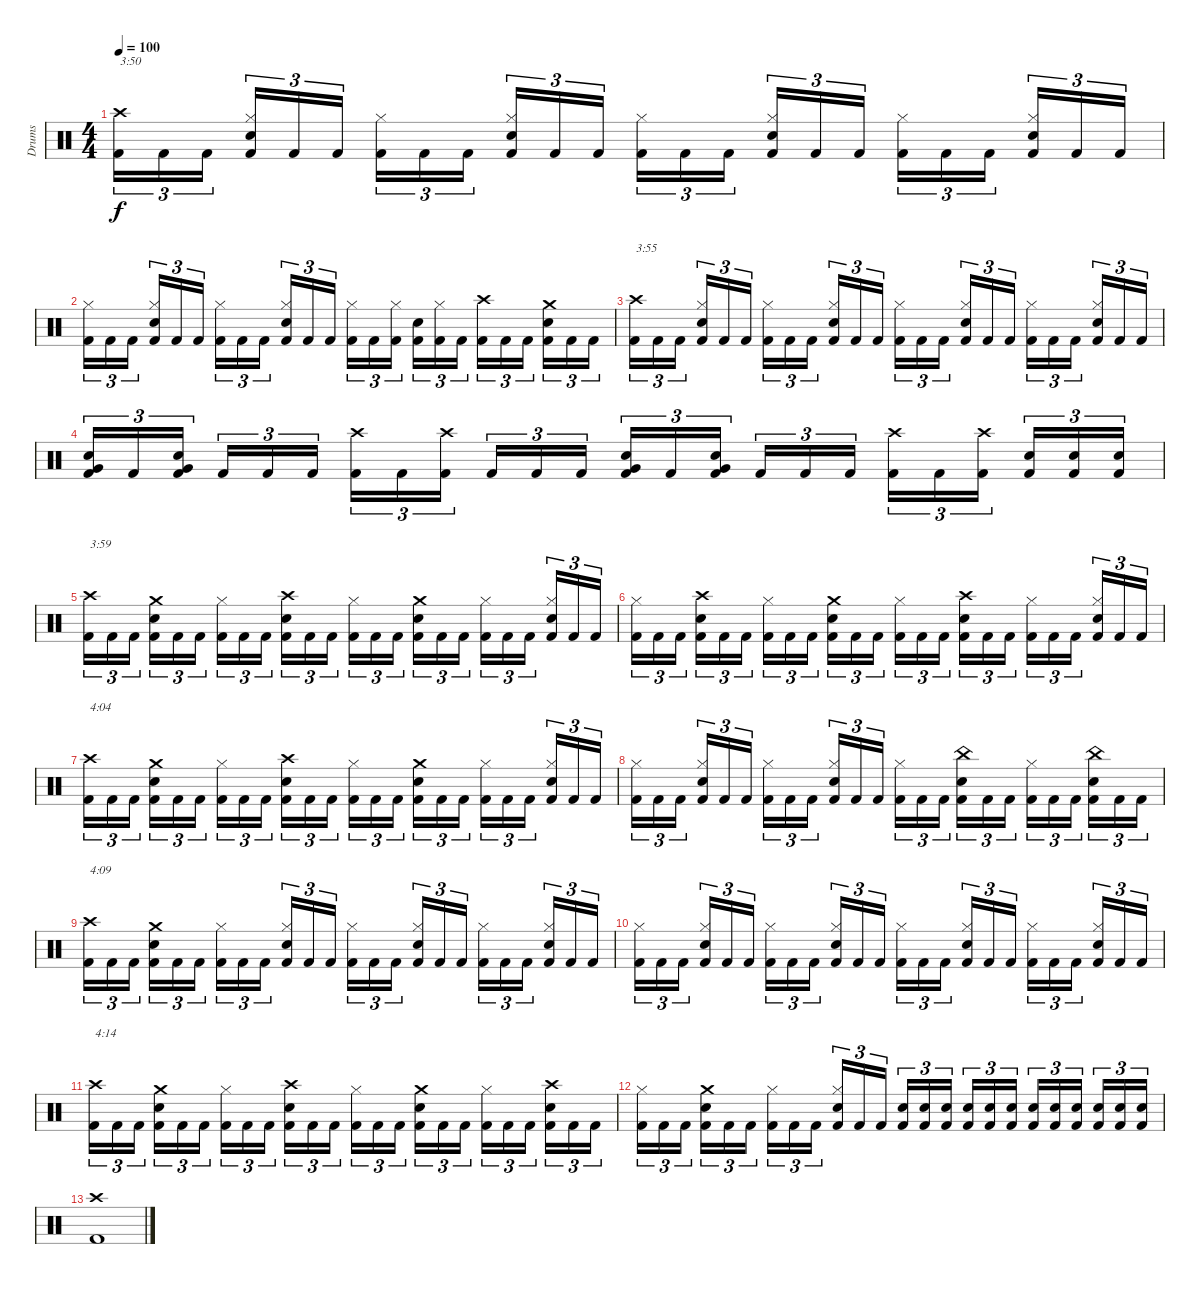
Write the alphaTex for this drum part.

\track ("Drums" "Drums") {instrument percussion}
\staff {score}
\articulation defaults
\ts (4 4)
\tempo 100
\clef neutral
\ks c
("Crash high (hit)" "Kick (hit) 2").16{tu (3 2) txt "3:50" dy f} "Kick (hit) 2".16{tu (3 2)} "Kick (hit) 2".16{tu (3 2)} ("Hi-Hat (closed)" "Snare (hit) 2" "Kick (hit) 2").16{tu (3 2)} "Kick (hit) 2".16{tu (3 2)} "Kick (hit) 2".16{tu (3 2)} ("Hi-Hat (closed)" "Kick (hit) 2").16{tu (3 2)} "Kick (hit) 2".16{tu (3 2)} "Kick (hit) 2".16{tu (3 2)} ("Hi-Hat (closed)" "Snare (hit) 2" "Kick (hit) 2").16{tu (3 2)} "Kick (hit) 2".16{tu (3 2)} "Kick (hit) 2".16{tu (3 2)} ("Hi-Hat (closed)" "Kick (hit) 2").16{tu (3 2)} "Kick (hit) 2".16{tu (3 2)} "Kick (hit) 2".16{tu (3 2)} ("Hi-Hat (closed)" "Snare (hit) 2" "Kick (hit) 2").16{tu (3 2)} "Kick (hit) 2".16{tu (3 2)} "Kick (hit) 2".16{tu (3 2)} ("Hi-Hat (closed)" "Kick (hit) 2").16{tu (3 2)} "Kick (hit) 2".16{tu (3 2)} "Kick (hit) 2".16{tu (3 2)} ("Hi-Hat (closed)" "Snare (hit) 2" "Kick (hit) 2").16{tu (3 2)} "Kick (hit) 2".16{tu (3 2)} "Kick (hit) 2".16{tu (3 2)} |
("Hi-Hat (closed)" "Kick (hit) 2").16{tu (3 2)} "Kick (hit) 2".16{tu (3 2)} "Kick (hit) 2".16{tu (3 2)} ("Hi-Hat (closed)" "Snare (hit) 2" "Kick (hit) 2").16{tu (3 2)} "Kick (hit) 2".16{tu (3 2)} "Kick (hit) 2".16{tu (3 2)} ("Hi-Hat (closed)" "Kick (hit) 2").16{tu (3 2)} "Kick (hit) 2".16{tu (3 2)} "Kick (hit) 2".16{tu (3 2)} ("Hi-Hat (closed)" "Snare (hit) 2" "Kick (hit) 2").16{tu (3 2)} "Kick (hit) 2".16{tu (3 2)} "Kick (hit) 2".16{tu (3 2)} ("Hi-Hat (closed)" "Kick (hit) 2").16{tu (3 2)} "Kick (hit) 2".16{tu (3 2)} ("Hi-Hat (closed)" "Kick (hit) 2").16{tu (3 2)} ("Snare (hit) 2" "Kick (hit) 2").16{tu (3 2)} ("Hi-Hat (closed)" "Kick (hit) 2").16{tu (3 2)} "Kick (hit) 2".16{tu (3 2)} ("Crash high (hit)" "Kick (hit) 2").16{tu (3 2)} "Kick (hit) 2".16{tu (3 2)} "Kick (hit) 2".16{tu (3 2)} ("Crash medium (hit)" "Snare (hit) 2" "Kick (hit) 2").16{tu (3 2)} "Kick (hit) 2".16{tu (3 2)} "Kick (hit) 2".16{tu (3 2)} |
("Crash high (hit)" "Kick (hit) 2").16{tu (3 2) txt "3:55"} "Kick (hit) 2".16{tu (3 2)} "Kick (hit) 2".16{tu (3 2)} ("Hi-Hat (closed)" "Snare (hit) 2" "Kick (hit) 2").16{tu (3 2)} "Kick (hit) 2".16{tu (3 2)} "Kick (hit) 2".16{tu (3 2)} ("Hi-Hat (closed)" "Kick (hit) 2").16{tu (3 2)} "Kick (hit) 2".16{tu (3 2)} "Kick (hit) 2".16{tu (3 2)} ("Hi-Hat (closed)" "Snare (hit) 2" "Kick (hit) 2").16{tu (3 2)} "Kick (hit) 2".16{tu (3 2)} "Kick (hit) 2".16{tu (3 2)} ("Hi-Hat (closed)" "Kick (hit) 2").16{tu (3 2)} "Kick (hit) 2".16{tu (3 2)} "Kick (hit) 2".16{tu (3 2)} ("Hi-Hat (closed)" "Snare (hit) 2" "Kick (hit) 2").16{tu (3 2)} "Kick (hit) 2".16{tu (3 2)} "Kick (hit) 2".16{tu (3 2)} ("Hi-Hat (closed)" "Kick (hit) 2").16{tu (3 2)} "Kick (hit) 2".16{tu (3 2)} "Kick (hit) 2".16{tu (3 2)} ("Hi-Hat (closed)" "Snare (hit) 2" "Kick (hit) 2").16{tu (3 2)} "Kick (hit) 2".16{tu (3 2)} "Kick (hit) 2".16{tu (3 2)} |
("Very Low Tom (hit)" "Snare (hit) 2" "Kick (hit) 2").16{tu (3 2)} "Kick (hit) 2".16{tu (3 2)} ("Very Low Tom (hit)" "Snare (hit) 2" "Kick (hit) 2").16{tu (3 2)} "Kick (hit) 2".16{tu (3 2)} "Kick (hit) 2".16{tu (3 2)} "Kick (hit) 2".16{tu (3 2)} ("Crash high (hit)" "Kick (hit) 2").16{tu (3 2)} "Kick (hit) 2".16{tu (3 2)} ("Crash high (hit)" "Kick (hit) 2").16{tu (3 2)} "Kick (hit) 2".16{tu (3 2)} "Kick (hit) 2".16{tu (3 2)} "Kick (hit) 2".16{tu (3 2)} ("Very Low Tom (hit)" "Snare (hit) 2" "Kick (hit) 2").16{tu (3 2)} "Kick (hit) 2".16{tu (3 2)} ("Very Low Tom (hit)" "Snare (hit) 2" "Kick (hit) 2").16{tu (3 2)} "Kick (hit) 2".16{tu (3 2)} "Kick (hit) 2".16{tu (3 2)} "Kick (hit) 2".16{tu (3 2)} ("Crash high (hit)" "Kick (hit) 2").16{tu (3 2)} "Kick (hit) 2".16{tu (3 2)} ("Crash high (hit)" "Kick (hit) 2").16{tu (3 2)} ("Snare (hit) 2" "Kick (hit) 2").16{tu (3 2)} ("Snare (hit) 2" "Kick (hit) 2").16{tu (3 2)} ("Snare (hit) 2" "Kick (hit) 2").16{tu (3 2)} |
("Crash high (hit)" "Kick (hit) 2").16{tu (3 2) txt "3:59"} "Kick (hit) 2".16{tu (3 2)} "Kick (hit) 2".16{tu (3 2)} ("Crash medium (hit)" "Snare (hit) 2" "Kick (hit) 2").16{tu (3 2)} "Kick (hit) 2".16{tu (3 2)} "Kick (hit) 2".16{tu (3 2)} ("Hi-Hat (closed)" "Kick (hit) 2").16{tu (3 2)} "Kick (hit) 2".16{tu (3 2)} "Kick (hit) 2".16{tu (3 2)} ("Crash high (hit)" "Snare (hit) 2" "Kick (hit) 2").16{tu (3 2)} "Kick (hit) 2".16{tu (3 2)} "Kick (hit) 2".16{tu (3 2)} ("Hi-Hat (closed)" "Kick (hit) 2").16{tu (3 2)} "Kick (hit) 2".16{tu (3 2)} "Kick (hit) 2".16{tu (3 2)} ("Crash medium (hit)" "Snare (hit) 2" "Kick (hit) 2").16{tu (3 2)} "Kick (hit) 2".16{tu (3 2)} "Kick (hit) 2".16{tu (3 2)} ("Hi-Hat (closed)" "Kick (hit) 2").16{tu (3 2)} "Kick (hit) 2".16{tu (3 2)} "Kick (hit) 2".16{tu (3 2)} ("Hi-Hat (closed)" "Snare (hit) 2" "Kick (hit) 2").16{tu (3 2)} "Kick (hit) 2".16{tu (3 2)} "Kick (hit) 2".16{tu (3 2)} |
("Hi-Hat (closed)" "Kick (hit) 2").16{tu (3 2)} "Kick (hit) 2".16{tu (3 2)} "Kick (hit) 2".16{tu (3 2)} ("Crash high (hit)" "Snare (hit) 2" "Kick (hit) 2").16{tu (3 2)} "Kick (hit) 2".16{tu (3 2)} "Kick (hit) 2".16{tu (3 2)} ("Hi-Hat (closed)" "Kick (hit) 2").16{tu (3 2)} "Kick (hit) 2".16{tu (3 2)} "Kick (hit) 2".16{tu (3 2)} ("Crash medium (hit)" "Snare (hit) 2" "Kick (hit) 2").16{tu (3 2)} "Kick (hit) 2".16{tu (3 2)} "Kick (hit) 2".16{tu (3 2)} ("Hi-Hat (closed)" "Kick (hit) 2").16{tu (3 2)} "Kick (hit) 2".16{tu (3 2)} "Kick (hit) 2".16{tu (3 2)} ("Crash high (hit)" "Snare (hit) 2" "Kick (hit) 2").16{tu (3 2)} "Kick (hit) 2".16{tu (3 2)} "Kick (hit) 2".16{tu (3 2)} ("Hi-Hat (closed)" "Kick (hit) 2").16{tu (3 2)} "Kick (hit) 2".16{tu (3 2)} "Kick (hit) 2".16{tu (3 2)} ("Hi-Hat (closed)" "Snare (hit) 2" "Kick (hit) 2").16{tu (3 2)} "Kick (hit) 2".16{tu (3 2)} "Kick (hit) 2".16{tu (3 2)} |
("Crash high (hit)" "Kick (hit) 2").16{tu (3 2) txt "4:04"} "Kick (hit) 2".16{tu (3 2)} "Kick (hit) 2".16{tu (3 2)} ("Crash medium (hit)" "Snare (hit) 2" "Kick (hit) 2").16{tu (3 2)} "Kick (hit) 2".16{tu (3 2)} "Kick (hit) 2".16{tu (3 2)} ("Hi-Hat (closed)" "Kick (hit) 2").16{tu (3 2)} "Kick (hit) 2".16{tu (3 2)} "Kick (hit) 2".16{tu (3 2)} ("Crash high (hit)" "Snare (hit) 2" "Kick (hit) 2").16{tu (3 2)} "Kick (hit) 2".16{tu (3 2)} "Kick (hit) 2".16{tu (3 2)} ("Hi-Hat (closed)" "Kick (hit) 2").16{tu (3 2)} "Kick (hit) 2".16{tu (3 2)} "Kick (hit) 2".16{tu (3 2)} ("Crash medium (hit)" "Snare (hit) 2" "Kick (hit) 2").16{tu (3 2)} "Kick (hit) 2".16{tu (3 2)} "Kick (hit) 2".16{tu (3 2)} ("Hi-Hat (closed)" "Kick (hit) 2").16{tu (3 2)} "Kick (hit) 2".16{tu (3 2)} "Kick (hit) 2".16{tu (3 2)} ("Hi-Hat (closed)" "Snare (hit) 2" "Kick (hit) 2").16{tu (3 2)} "Kick (hit) 2".16{tu (3 2)} "Kick (hit) 2".16{tu (3 2)} |
("Hi-Hat (closed)" "Kick (hit) 2").16{tu (3 2)} "Kick (hit) 2".16{tu (3 2)} "Kick (hit) 2".16{tu (3 2)} ("Hi-Hat (closed)" "Snare (hit) 2" "Kick (hit) 2").16{tu (3 2)} "Kick (hit) 2".16{tu (3 2)} "Kick (hit) 2".16{tu (3 2)} ("Hi-Hat (closed)" "Kick (hit) 2").16{tu (3 2)} "Kick (hit) 2".16{tu (3 2)} "Kick (hit) 2".16{tu (3 2)} ("Hi-Hat (closed)" "Snare (hit) 2" "Kick (hit) 2").16{tu (3 2)} "Kick (hit) 2".16{tu (3 2)} "Kick (hit) 2".16{tu (3 2)} ("Hi-Hat (closed)" "Kick (hit) 2").16{tu (3 2)} "Kick (hit) 2".16{tu (3 2)} "Kick (hit) 2".16{tu (3 2)} ("China (hit)" "Snare (hit) 2" "Kick (hit) 2").16{tu (3 2)} "Kick (hit) 2".16{tu (3 2)} "Kick (hit) 2".16{tu (3 2)} ("Hi-Hat (closed)" "Kick (hit) 2").16{tu (3 2)} "Kick (hit) 2".16{tu (3 2)} "Kick (hit) 2".16{tu (3 2)} ("China (hit)" "Snare (hit) 2" "Kick (hit) 2").16{tu (3 2)} "Kick (hit) 2".16{tu (3 2)} "Kick (hit) 2".16{tu (3 2)} |
("Crash high (hit)" "Kick (hit) 2").16{tu (3 2) txt "4:09"} "Kick (hit) 2".16{tu (3 2)} "Kick (hit) 2".16{tu (3 2)} ("Crash medium (hit)" "Snare (hit) 2" "Kick (hit) 2").16{tu (3 2)} "Kick (hit) 2".16{tu (3 2)} "Kick (hit) 2".16{tu (3 2)} ("Hi-Hat (closed)" "Kick (hit) 2").16{tu (3 2)} "Kick (hit) 2".16{tu (3 2)} "Kick (hit) 2".16{tu (3 2)} ("Hi-Hat (closed)" "Snare (hit) 2" "Kick (hit) 2").16{tu (3 2)} "Kick (hit) 2".16{tu (3 2)} "Kick (hit) 2".16{tu (3 2)} ("Hi-Hat (closed)" "Kick (hit) 2").16{tu (3 2)} "Kick (hit) 2".16{tu (3 2)} "Kick (hit) 2".16{tu (3 2)} ("Hi-Hat (closed)" "Snare (hit) 2" "Kick (hit) 2").16{tu (3 2)} "Kick (hit) 2".16{tu (3 2)} "Kick (hit) 2".16{tu (3 2)} ("Hi-Hat (closed)" "Kick (hit) 2").16{tu (3 2)} "Kick (hit) 2".16{tu (3 2)} "Kick (hit) 2".16{tu (3 2)} ("Hi-Hat (closed)" "Snare (hit) 2" "Kick (hit) 2").16{tu (3 2)} "Kick (hit) 2".16{tu (3 2)} "Kick (hit) 2".16{tu (3 2)} |
("Hi-Hat (closed)" "Kick (hit) 2").16{tu (3 2)} "Kick (hit) 2".16{tu (3 2)} "Kick (hit) 2".16{tu (3 2)} ("Hi-Hat (closed)" "Snare (hit) 2" "Kick (hit) 2").16{tu (3 2)} "Kick (hit) 2".16{tu (3 2)} "Kick (hit) 2".16{tu (3 2)} ("Hi-Hat (closed)" "Kick (hit) 2").16{tu (3 2)} "Kick (hit) 2".16{tu (3 2)} "Kick (hit) 2".16{tu (3 2)} ("Hi-Hat (closed)" "Snare (hit) 2" "Kick (hit) 2").16{tu (3 2)} "Kick (hit) 2".16{tu (3 2)} "Kick (hit) 2".16{tu (3 2)} ("Hi-Hat (closed)" "Kick (hit) 2").16{tu (3 2)} "Kick (hit) 2".16{tu (3 2)} "Kick (hit) 2".16{tu (3 2)} ("Hi-Hat (closed)" "Snare (hit) 2" "Kick (hit) 2").16{tu (3 2)} "Kick (hit) 2".16{tu (3 2)} "Kick (hit) 2".16{tu (3 2)} ("Hi-Hat (closed)" "Kick (hit) 2").16{tu (3 2)} "Kick (hit) 2".16{tu (3 2)} "Kick (hit) 2".16{tu (3 2)} ("Hi-Hat (closed)" "Snare (hit) 2" "Kick (hit) 2").16{tu (3 2)} "Kick (hit) 2".16{tu (3 2)} "Kick (hit) 2".16{tu (3 2)} |
("Crash high (hit)" "Kick (hit) 2").16{tu (3 2) txt "4:14"} "Kick (hit) 2".16{tu (3 2)} "Kick (hit) 2".16{tu (3 2)} ("Crash medium (hit)" "Snare (hit) 2" "Kick (hit) 2").16{tu (3 2)} "Kick (hit) 2".16{tu (3 2)} "Kick (hit) 2".16{tu (3 2)} ("Hi-Hat (closed)" "Kick (hit) 2").16{tu (3 2)} "Kick (hit) 2".16{tu (3 2)} "Kick (hit) 2".16{tu (3 2)} ("Crash high (hit)" "Snare (hit) 2" "Kick (hit) 2").16{tu (3 2)} "Kick (hit) 2".16{tu (3 2)} "Kick (hit) 2".16{tu (3 2)} ("Hi-Hat (closed)" "Kick (hit) 2").16{tu (3 2)} "Kick (hit) 2".16{tu (3 2)} "Kick (hit) 2".16{tu (3 2)} ("Crash medium (hit)" "Snare (hit) 2" "Kick (hit) 2").16{tu (3 2)} "Kick (hit) 2".16{tu (3 2)} "Kick (hit) 2".16{tu (3 2)} ("Hi-Hat (closed)" "Kick (hit) 2").16{tu (3 2)} "Kick (hit) 2".16{tu (3 2)} "Kick (hit) 2".16{tu (3 2)} ("Crash high (hit)" "Snare (hit) 2" "Kick (hit) 2").16{tu (3 2)} "Kick (hit) 2".16{tu (3 2)} "Kick (hit) 2".16{tu (3 2)} |
("Hi-Hat (closed)" "Kick (hit) 2").16{tu (3 2)} "Kick (hit) 2".16{tu (3 2)} "Kick (hit) 2".16{tu (3 2)} ("Crash medium (hit)" "Snare (hit) 2" "Kick (hit) 2").16{tu (3 2)} "Kick (hit) 2".16{tu (3 2)} "Kick (hit) 2".16{tu (3 2)} ("Hi-Hat (closed)" "Kick (hit) 2").16{tu (3 2)} "Kick (hit) 2".16{tu (3 2)} "Kick (hit) 2".16{tu (3 2)} ("Hi-Hat (closed)" "Snare (hit) 2" "Kick (hit) 2").16{tu (3 2)} "Kick (hit) 2".16{tu (3 2)} "Kick (hit) 2".16{tu (3 2)} ("Snare (hit) 2" "Kick (hit) 2").16{tu (3 2)} ("Snare (hit) 2" "Kick (hit) 2").16{tu (3 2)} ("Snare (hit) 2" "Kick (hit) 2").16{tu (3 2)} ("Snare (hit) 2" "Kick (hit) 2").16{tu (3 2)} ("Snare (hit) 2" "Kick (hit) 2").16{tu (3 2)} ("Snare (hit) 2" "Kick (hit) 2").16{tu (3 2)} ("Snare (hit) 2" "Kick (hit) 2").16{tu (3 2)} ("Snare (hit) 2" "Kick (hit) 2").16{tu (3 2)} ("Snare (hit) 2" "Kick (hit) 2").16{tu (3 2)} ("Snare (hit) 2" "Kick (hit) 2").16{tu (3 2)} ("Snare (hit) 2" "Kick (hit) 2").16{tu (3 2)} ("Snare (hit) 2" "Kick (hit) 2").16{tu (3 2)} |
("Crash high (hit)" "Kick (hit) 2").1
